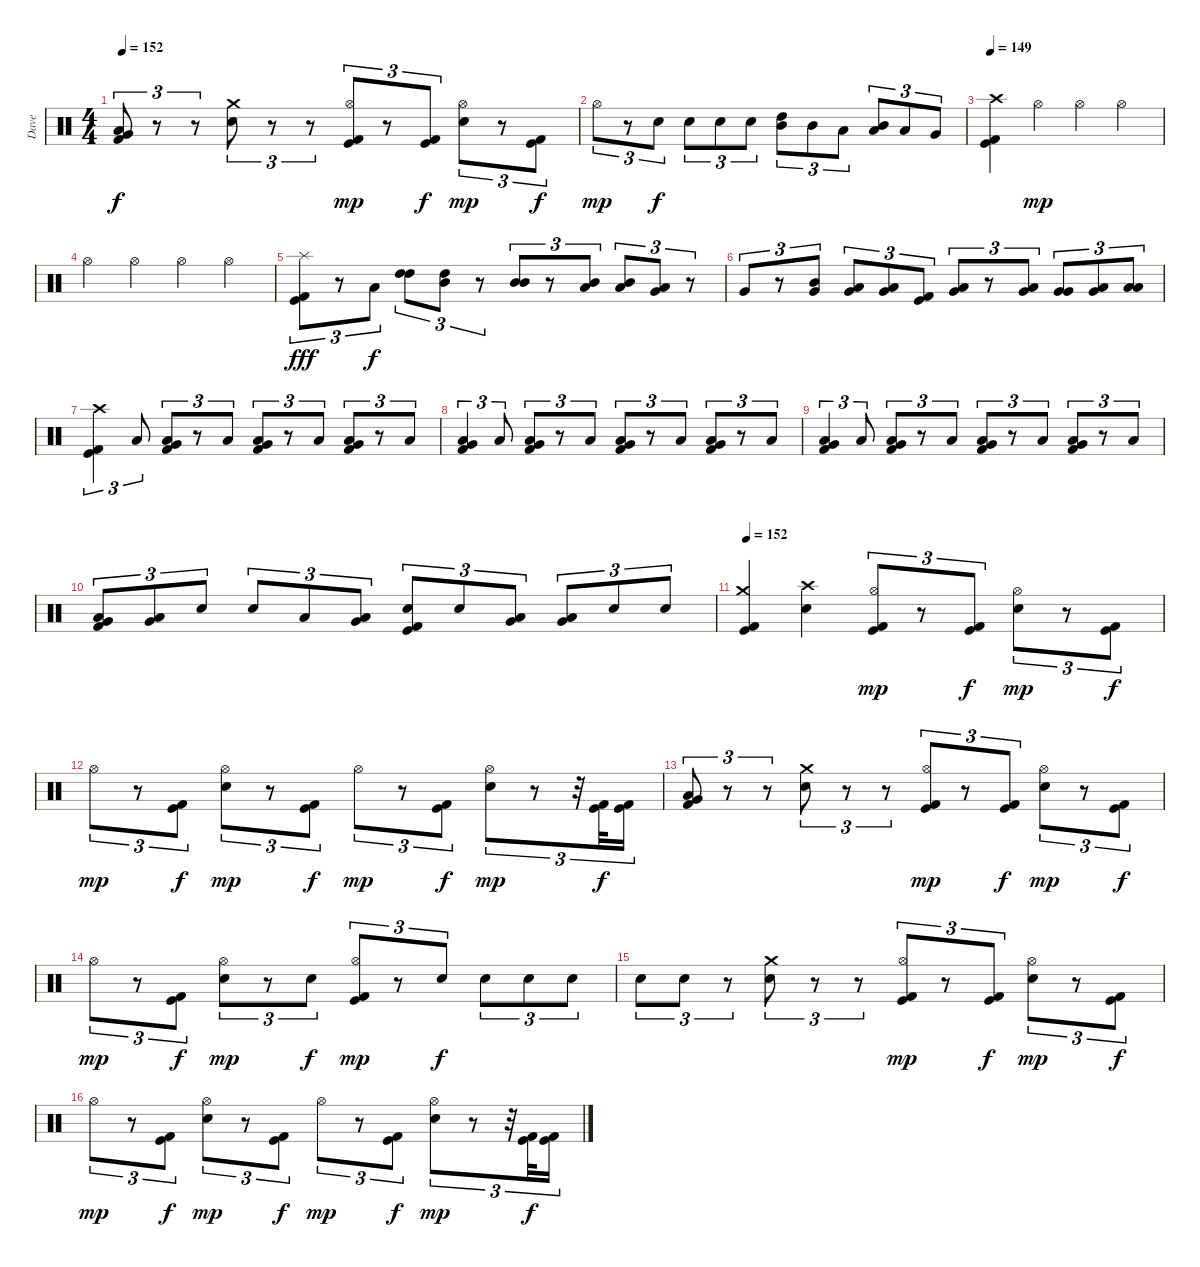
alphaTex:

\track ("Dave" "Dave") {instrument percussion}
\staff {score}
\articulation defaults
\ts (4 4)
\tempo 152
\clef neutral
\ks c
("Low Floor Tom (hit)" "Very Low Tom (hit)" "Kick (hit) 2").8{tu (3 2) dy f} r.8{tu (3 2)} r.8{tu (3 2)} ("Crash medium (hit)" "Electric Snare (hit)").8{tu (3 2)} r.8{tu (3 2)} r.8{tu (3 2)} ("Hi-Hat (open)" "Kick (hit)" "Kick (hit) 2").8{tu (3 2) dy mp} r.8{tu (3 2)} ("Kick (hit)" "Kick (hit) 2").8{tu (3 2) dy f} ("Hi-Hat (open)" "Electric Snare (hit)").8{tu (3 2) dy mp} r.8{tu (3 2)} ("Kick (hit)" "Kick (hit) 2").8{tu (3 2) dy f} |
"Hi-Hat (open)".8{tu (3 2) dy mp} r.8{tu (3 2)} "Electric Snare (hit)".8{tu (3 2) dy f} "Electric Snare (hit)".8{tu (3 2)} "Electric Snare (hit)".8{tu (3 2)} "Electric Snare (hit)".8{tu (3 2)} ("High Tom (hit)" "Mid Tom (hit)").8{tu (3 2)} "Mid Tom (hit)".8{tu (3 2)} "Low Tom (hit)".8{tu (3 2)} ("Mid Tom (hit)" "Low Tom (hit)").8{tu (3 2)} "Low Tom (hit)".8{tu (3 2)} "Very Low Tom (hit)".8{tu (3 2)} |
\tempo 149
("Crash high (hit)" "Kick (hit)" "Kick (hit) 2").4 "Hi-Hat (open)".4{dy mp} "Hi-Hat (open)".4 "Hi-Hat (open)".4 |
"Hi-Hat (open)".4 "Hi-Hat (open)".4 "Hi-Hat (open)".4 "Hi-Hat (open)".4 |
("Splash (hit)" "Kick (hit)" "Kick (hit) 2").8{tu (3 2) dy fff} r.8{tu (3 2)} "Low Tom (hit)".8{tu (3 2) dy f} ("High Tom (hit)" "High Tom (hit)").8{tu (3 2)} ("High Tom (hit)" "Mid Tom (hit)").8{tu (3 2)} r.8{tu (3 2)} ("Mid Tom (hit)" "Mid Tom (hit)").8{tu (3 2)} r.8{tu (3 2)} ("Mid Tom (hit)" "Low Tom (hit)").8{tu (3 2)} ("Mid Tom (hit)" "Low Tom (hit)").8{tu (3 2)} ("Very Low Tom (hit)" "Low Tom (hit)").8{tu (3 2)} r.8{tu (3 2)} |
"Very Low Tom (hit)".8{tu (3 2)} r.8{tu (3 2)} ("Mid Tom (hit)" "Very Low Tom (hit)").8{tu (3 2)} ("Low Tom (hit)" "Very Low Tom (hit)").8{tu (3 2)} ("Low Tom (hit)" "Very Low Tom (hit)").8{tu (3 2)} ("Kick (hit)" "Kick (hit) 2").8{tu (3 2)} ("Low Tom (hit)" "Very Low Tom (hit)").8{tu (3 2)} r.8{tu (3 2)} ("Low Tom (hit)" "Very Low Tom (hit)").8{tu (3 2)} ("Very Low Tom (hit)" "Very Low Tom (hit)").8{tu (3 2)} ("Low Floor Tom (hit)" "Very Low Tom (hit)").8{tu (3 2)} ("Low Floor Tom (hit)" "Low Floor Tom (hit)").8{tu (3 2)} |
("Crash high (hit)" "Kick (hit)" "Kick (hit) 2").4{tu (3 2)} "Low Floor Tom (hit)".8{tu (3 2)} ("Low Floor Tom (hit)" "Very Low Tom (hit)" "Kick (hit) 2").8{tu (3 2) bd 120} r.8{tu (3 2)} "Low Floor Tom (hit)".8{tu (3 2)} ("Low Floor Tom (hit)" "Very Low Tom (hit)" "Kick (hit) 2").8{tu (3 2) bd 120} r.8{tu (3 2)} "Low Floor Tom (hit)".8{tu (3 2)} ("Low Floor Tom (hit)" "Very Low Tom (hit)" "Kick (hit) 2").8{tu (3 2) bd 120} r.8{tu (3 2)} "Low Floor Tom (hit)".8{tu (3 2)} |
("Low Floor Tom (hit)" "Very Low Tom (hit)" "Kick (hit) 2").4{tu (3 2) bd 120} "Low Floor Tom (hit)".8{tu (3 2)} ("Low Floor Tom (hit)" "Very Low Tom (hit)" "Kick (hit) 2").8{tu (3 2) bd 120} r.8{tu (3 2)} "Low Floor Tom (hit)".8{tu (3 2)} ("Low Floor Tom (hit)" "Very Low Tom (hit)" "Kick (hit) 2").8{tu (3 2) bd 120} r.8{tu (3 2)} "Low Floor Tom (hit)".8{tu (3 2)} ("Low Floor Tom (hit)" "Very Low Tom (hit)" "Kick (hit) 2").8{tu (3 2) bd 120} r.8{tu (3 2)} "Low Floor Tom (hit)".8{tu (3 2)} |
("Low Floor Tom (hit)" "Very Low Tom (hit)" "Kick (hit) 2").4{tu (3 2) bd 120} "Low Floor Tom (hit)".8{tu (3 2)} ("Low Floor Tom (hit)" "Very Low Tom (hit)" "Kick (hit) 2").8{tu (3 2) bd 120} r.8{tu (3 2)} "Low Floor Tom (hit)".8{tu (3 2)} ("Low Floor Tom (hit)" "Very Low Tom (hit)" "Kick (hit) 2").8{tu (3 2) bd 120} r.8{tu (3 2)} "Low Floor Tom (hit)".8{tu (3 2)} ("Low Floor Tom (hit)" "Very Low Tom (hit)" "Kick (hit) 2").8{tu (3 2) bd 120} r.8{tu (3 2)} "Low Floor Tom (hit)".8{tu (3 2)} |
("Low Floor Tom (hit)" "Very Low Tom (hit)" "Kick (hit) 2").8{tu (3 2) bd 120} ("Low Floor Tom (hit)" "Very Low Tom (hit)").8{tu (3 2)} "Electric Snare (hit)".8{tu (3 2)} "Electric Snare (hit)".8{tu (3 2)} "Low Tom (hit)".8{tu (3 2)} ("Low Tom (hit)" "Very Low Tom (hit)").8{tu (3 2)} ("Electric Snare (hit)" "Kick (hit)" "Kick (hit) 2").8{tu (3 2) bd 60} "Electric Snare (hit)".8{tu (3 2)} ("Very Low Tom (hit)" "Low Tom (hit)").8{tu (3 2) bd 240} ("Low Floor Tom (hit)" "Very Low Tom (hit)").8{tu (3 2)} "Electric Snare (hit)".8{tu (3 2)} "Electric Snare (hit)".8{tu (3 2)} |
\tempo 152
("Crash medium (hit)" "Kick (hit)" "Kick (hit) 2").4 ("Crash high (hit)" "Electric Snare (hit)").4 ("Hi-Hat (open)" "Kick (hit)" "Kick (hit) 2").8{tu (3 2) dy mp} r.8{tu (3 2)} ("Kick (hit)" "Kick (hit) 2").8{tu (3 2) dy f} ("Hi-Hat (open)" "Electric Snare (hit)").8{tu (3 2) dy mp} r.8{tu (3 2)} ("Kick (hit)" "Kick (hit) 2").8{tu (3 2) dy f} |
"Hi-Hat (open)".8{tu (3 2) dy mp} r.8{tu (3 2)} ("Kick (hit)" "Kick (hit) 2").8{tu (3 2) dy f} ("Hi-Hat (open)" "Electric Snare (hit)").8{tu (3 2) dy mp} r.8{tu (3 2)} ("Kick (hit)" "Kick (hit) 2").8{tu (3 2) dy f} "Hi-Hat (open)".8{tu (3 2) dy mp} r.8{tu (3 2)} ("Kick (hit)" "Kick (hit) 2").8{tu (3 2) dy f} ("Hi-Hat (open)" "Electric Snare (hit)").8{tu (3 2) dy mp} r.8{tu (3 2)} r.32{tu (3 2)} ("Kick (hit)" "Kick (hit) 2").32{tu (3 2) dy f} ("Kick (hit)" "Kick (hit) 2").16{tu (3 2)} |
("Low Floor Tom (hit)" "Very Low Tom (hit)" "Kick (hit) 2").8{tu (3 2)} r.8{tu (3 2)} r.8{tu (3 2)} ("Crash medium (hit)" "Electric Snare (hit)").8{tu (3 2)} r.8{tu (3 2)} r.8{tu (3 2)} ("Hi-Hat (open)" "Kick (hit)" "Kick (hit) 2").8{tu (3 2) dy mp} r.8{tu (3 2)} ("Kick (hit)" "Kick (hit) 2").8{tu (3 2) dy f} ("Hi-Hat (open)" "Electric Snare (hit)").8{tu (3 2) dy mp} r.8{tu (3 2)} ("Kick (hit)" "Kick (hit) 2").8{tu (3 2) dy f} |
"Hi-Hat (open)".8{tu (3 2) dy mp} r.8{tu (3 2)} ("Kick (hit)" "Kick (hit) 2").8{tu (3 2) dy f} ("Hi-Hat (open)" "Electric Snare (hit)").8{tu (3 2) dy mp} r.8{tu (3 2)} "Electric Snare (hit)".8{tu (3 2) dy f} ("Hi-Hat (open)" "Kick (hit)" "Kick (hit) 2").8{tu (3 2) dy mp} r.8{tu (3 2)} "Electric Snare (hit)".8{tu (3 2) dy f} "Electric Snare (hit)".8{tu (3 2)} "Electric Snare (hit)".8{tu (3 2)} "Electric Snare (hit)".8{tu (3 2)} |
"Electric Snare (hit)".8{tu (3 2)} "Electric Snare (hit)".8{tu (3 2)} r.8{tu (3 2)} ("Crash medium (hit)" "Electric Snare (hit)").8{tu (3 2)} r.8{tu (3 2)} r.8{tu (3 2)} ("Hi-Hat (open)" "Kick (hit)" "Kick (hit) 2").8{tu (3 2) dy mp} r.8{tu (3 2)} ("Kick (hit)" "Kick (hit) 2").8{tu (3 2) dy f} ("Hi-Hat (open)" "Electric Snare (hit)").8{tu (3 2) dy mp} r.8{tu (3 2)} ("Kick (hit)" "Kick (hit) 2").8{tu (3 2) dy f} |
"Hi-Hat (open)".8{tu (3 2) dy mp} r.8{tu (3 2)} ("Kick (hit)" "Kick (hit) 2").8{tu (3 2) dy f} ("Hi-Hat (open)" "Electric Snare (hit)").8{tu (3 2) dy mp} r.8{tu (3 2)} ("Kick (hit)" "Kick (hit) 2").8{tu (3 2) dy f} "Hi-Hat (open)".8{tu (3 2) dy mp} r.8{tu (3 2)} ("Kick (hit)" "Kick (hit) 2").8{tu (3 2) dy f} ("Hi-Hat (open)" "Electric Snare (hit)").8{tu (3 2) dy mp} r.8{tu (3 2)} r.32{tu (3 2)} ("Kick (hit)" "Kick (hit) 2").32{tu (3 2) dy f} ("Kick (hit)" "Kick (hit) 2").16{tu (3 2)}
